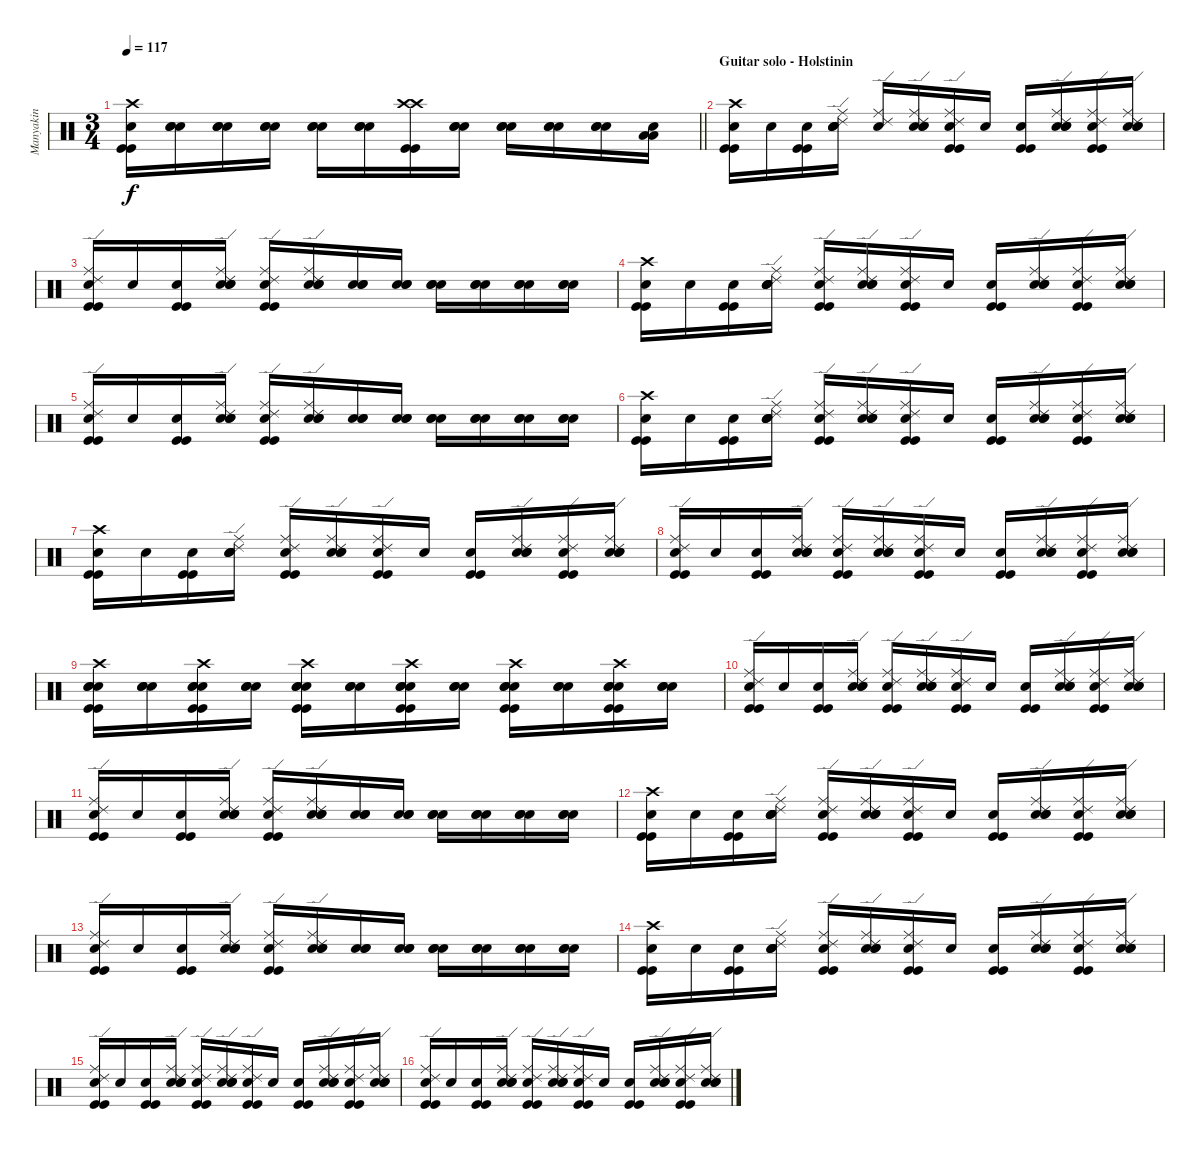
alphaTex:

\track ("Manyakin" "Manyakin") {instrument percussion}
\staff {score}
\articulation defaults
\ts (3 4)
\tempo 117
\clef neutral
\barLineRight lightlight
\ks c
("Crash high (hit)" "Kick (hit)" "Kick (hit)" "Snare (hit)"{x}).16{dy f} ("Electric Snare (hit)" "Electric Snare (hit)" "Snare (hit)"{x}).16 ("Electric Snare (hit)" "Electric Snare (hit)" "Snare (hit)"{x}).16 ("Electric Snare (hit)" "Electric Snare (hit)" "Snare (hit)"{x}).16 ("Electric Snare (hit)" "Electric Snare (hit)" "Snare (hit)"{x}).16 ("Electric Snare (hit)" "Electric Snare (hit)" "Snare (hit)"{x}).16 ("Crash high (hit)" "Kick (hit)" "Kick (hit)" "Crash high (hit)"{x}).16 ("Electric Snare (hit)" "Electric Snare (hit)" "Snare (hit)"{x}).16 ("Electric Snare (hit)" "Electric Snare (hit)" "Snare (hit)"{x}).16 ("Electric Snare (hit)" "Electric Snare (hit)" "Snare (hit)"{x}).16 ("Electric Snare (hit)" "Electric Snare (hit)" "Snare (hit)"{x}).16 ("Low Tom (hit)" "Low Tom (hit)" "Snare (hit)"{x}).16 |
\section ("" "Guitar solo - Holstinin")
("Crash high (hit)" "Kick (hit)" "Kick (hit)" "Snare (hit)"{x}).16 "Snare (hit)"{x}.16 ("Kick (hit)" "Kick (hit)" "Snare (hit)"{x}).16 ("Ride (middle)" "Ride (edge) 2" "Electric Snare (hit)" "Electric Snare (hit)" "Snare (hit)"{x}).16 ("Ride (middle)" "Ride (edge) 2" "Snare (hit)"{x}).16 ("Ride (middle)" "Ride (edge) 2" "Electric Snare (hit)" "Electric Snare (hit)" "Snare (hit)"{x}).16 ("Ride (middle)" "Ride (edge) 2" "Kick (hit)" "Kick (hit)" "Snare (hit)"{x}).16 "Snare (hit)"{x}.16 ("Kick (hit)" "Kick (hit)" "Snare (hit)"{x}).16 ("Ride (middle)" "Ride (edge) 2" "Electric Snare (hit)" "Electric Snare (hit)" "Snare (hit)"{x}).16 ("Ride (middle)" "Ride (edge) 2" "Kick (hit)" "Kick (hit)" "Snare (hit)"{x}).16 ("Ride (middle)" "Ride (edge) 2" "Electric Snare (hit)" "Electric Snare (hit)" "Snare (hit)"{x}).16 |
("Ride (middle)" "Ride (edge) 2" "Kick (hit)" "Kick (hit)" "Snare (hit)"{x}).16 "Snare (hit)"{x}.16 ("Kick (hit)" "Kick (hit)" "Snare (hit)"{x}).16 ("Ride (middle)" "Ride (edge) 2" "Electric Snare (hit)" "Electric Snare (hit)" "Snare (hit)"{x}).16 ("Ride (middle)" "Ride (edge) 2" "Kick (hit)" "Kick (hit)" "Snare (hit)"{x}).16 ("Ride (middle)" "Ride (edge) 2" "Electric Snare (hit)" "Electric Snare (hit)" "Snare (hit)"{x}).16 ("Electric Snare (hit)" "Electric Snare (hit)" "Snare (hit)"{x}).16 ("Electric Snare (hit)" "Electric Snare (hit)" "Snare (hit)"{x}).16 ("Electric Snare (hit)" "Electric Snare (hit)" "Snare (hit)"{x}).16 ("Electric Snare (hit)" "Electric Snare (hit)" "Snare (hit)"{x}).16 ("Electric Snare (hit)" "Electric Snare (hit)" "Snare (hit)"{x}).16 ("Electric Snare (hit)" "Electric Snare (hit)" "Snare (hit)"{x}).16 |
("Crash high (hit)" "Kick (hit)" "Kick (hit)" "Snare (hit)"{x}).16 "Snare (hit)"{x}.16 ("Kick (hit)" "Kick (hit)" "Snare (hit)"{x}).16 ("Ride (middle)" "Ride (edge) 2" "Electric Snare (hit)" "Electric Snare (hit)" "Snare (hit)"{x}).16 ("Ride (middle)" "Ride (edge) 2" "Kick (hit)" "Kick (hit)" "Snare (hit)"{x}).16 ("Ride (middle)" "Ride (edge) 2" "Electric Snare (hit)" "Electric Snare (hit)" "Snare (hit)"{x}).16 ("Ride (middle)" "Ride (edge) 2" "Kick (hit)" "Kick (hit)" "Snare (hit)"{x}).16 "Snare (hit)"{x}.16 ("Kick (hit)" "Kick (hit)" "Snare (hit)"{x}).16 ("Ride (middle)" "Ride (edge) 2" "Electric Snare (hit)" "Electric Snare (hit)" "Snare (hit)"{x}).16 ("Ride (middle)" "Ride (edge) 2" "Kick (hit)" "Kick (hit)" "Snare (hit)"{x}).16 ("Ride (middle)" "Ride (edge) 2" "Electric Snare (hit)" "Electric Snare (hit)" "Snare (hit)"{x}).16 |
("Ride (middle)" "Ride (edge) 2" "Kick (hit)" "Kick (hit)" "Snare (hit)"{x}).16 "Snare (hit)"{x}.16 ("Kick (hit)" "Kick (hit)" "Snare (hit)"{x}).16 ("Ride (middle)" "Ride (edge) 2" "Electric Snare (hit)" "Electric Snare (hit)" "Snare (hit)"{x}).16 ("Ride (middle)" "Ride (edge) 2" "Kick (hit)" "Kick (hit)" "Snare (hit)"{x}).16 ("Ride (middle)" "Ride (edge) 2" "Electric Snare (hit)" "Electric Snare (hit)" "Snare (hit)"{x}).16 ("Electric Snare (hit)" "Electric Snare (hit)" "Snare (hit)"{x}).16 ("Electric Snare (hit)" "Electric Snare (hit)" "Snare (hit)"{x}).16 ("Electric Snare (hit)" "Electric Snare (hit)" "Snare (hit)"{x}).16 ("Electric Snare (hit)" "Electric Snare (hit)" "Snare (hit)"{x}).16 ("Electric Snare (hit)" "Electric Snare (hit)" "Snare (hit)"{x}).16 ("Electric Snare (hit)" "Electric Snare (hit)" "Snare (hit)"{x}).16 |
("Crash high (hit)" "Kick (hit)" "Kick (hit)" "Snare (hit)"{x}).16 "Snare (hit)"{x}.16 ("Kick (hit)" "Kick (hit)" "Snare (hit)"{x}).16 ("Ride (middle)" "Ride (edge) 2" "Electric Snare (hit)" "Electric Snare (hit)" "Snare (hit)"{x}).16 ("Ride (middle)" "Ride (edge) 2" "Kick (hit)" "Kick (hit)" "Snare (hit)"{x}).16 ("Ride (middle)" "Ride (edge) 2" "Electric Snare (hit)" "Electric Snare (hit)" "Snare (hit)"{x}).16 ("Ride (middle)" "Ride (edge) 2" "Kick (hit)" "Kick (hit)" "Snare (hit)"{x}).16 "Snare (hit)"{x}.16 ("Kick (hit)" "Kick (hit)" "Snare (hit)"{x}).16 ("Ride (middle)" "Ride (edge) 2" "Electric Snare (hit)" "Electric Snare (hit)" "Snare (hit)"{x}).16 ("Ride (middle)" "Ride (edge) 2" "Kick (hit)" "Kick (hit)" "Snare (hit)"{x}).16 ("Ride (middle)" "Ride (edge) 2" "Electric Snare (hit)" "Electric Snare (hit)" "Snare (hit)"{x}).16 |
("Crash high (hit)" "Kick (hit)" "Kick (hit)" "Snare (hit)"{x}).16 "Snare (hit)"{x}.16 ("Kick (hit)" "Kick (hit)" "Snare (hit)"{x}).16 ("Ride (middle)" "Ride (edge) 2" "Electric Snare (hit)" "Electric Snare (hit)" "Snare (hit)"{x}).16 ("Ride (middle)" "Ride (edge) 2" "Kick (hit)" "Kick (hit)" "Snare (hit)"{x}).16 ("Ride (middle)" "Ride (edge) 2" "Electric Snare (hit)" "Electric Snare (hit)" "Snare (hit)"{x}).16 ("Ride (middle)" "Ride (edge) 2" "Kick (hit)" "Kick (hit)" "Snare (hit)"{x}).16 "Snare (hit)"{x}.16 ("Kick (hit)" "Kick (hit)" "Snare (hit)"{x}).16 ("Ride (middle)" "Ride (edge) 2" "Electric Snare (hit)" "Electric Snare (hit)" "Snare (hit)"{x}).16 ("Ride (middle)" "Ride (edge) 2" "Kick (hit)" "Kick (hit)" "Snare (hit)"{x}).16 ("Ride (middle)" "Ride (edge) 2" "Electric Snare (hit)" "Electric Snare (hit)" "Snare (hit)"{x}).16 |
("Ride (middle)" "Ride (edge) 2" "Kick (hit)" "Kick (hit)" "Snare (hit)"{x}).16 "Snare (hit)"{x}.16 ("Kick (hit)" "Kick (hit)" "Snare (hit)"{x}).16 ("Ride (middle)" "Ride (edge) 2" "Electric Snare (hit)" "Electric Snare (hit)" "Snare (hit)"{x}).16 ("Ride (middle)" "Ride (edge) 2" "Kick (hit)" "Kick (hit)" "Snare (hit)"{x}).16 ("Ride (middle)" "Ride (edge) 2" "Electric Snare (hit)" "Electric Snare (hit)" "Snare (hit)"{x}).16 ("Ride (middle)" "Ride (edge) 2" "Kick (hit)" "Kick (hit)" "Snare (hit)"{x}).16 "Snare (hit)"{x}.16 ("Kick (hit)" "Kick (hit)" "Snare (hit)"{x}).16 ("Ride (middle)" "Ride (edge) 2" "Electric Snare (hit)" "Electric Snare (hit)" "Snare (hit)"{x}).16 ("Ride (middle)" "Ride (edge) 2" "Kick (hit)" "Kick (hit)" "Snare (hit)"{x}).16 ("Ride (middle)" "Ride (edge) 2" "Electric Snare (hit)" "Electric Snare (hit)" "Snare (hit)"{x}).16 |
("Crash high (hit)" "Kick (hit)" "Kick (hit)" "Electric Snare (hit)" "Electric Snare (hit)" "Snare (hit)"{x}).16 ("Electric Snare (hit)" "Electric Snare (hit)" "Snare (hit)"{x}).16 ("Crash high (hit)" "Kick (hit)" "Kick (hit)" "Electric Snare (hit)" "Electric Snare (hit)" "Snare (hit)"{x}).16 ("Electric Snare (hit)" "Electric Snare (hit)" "Snare (hit)"{x}).16 ("Crash high (hit)" "Kick (hit)" "Kick (hit)" "Electric Snare (hit)" "Electric Snare (hit)" "Snare (hit)"{x}).16 ("Electric Snare (hit)" "Electric Snare (hit)" "Snare (hit)"{x}).16 ("Crash high (hit)" "Kick (hit)" "Kick (hit)" "Electric Snare (hit)" "Electric Snare (hit)" "Snare (hit)"{x}).16 ("Electric Snare (hit)" "Electric Snare (hit)" "Snare (hit)"{x}).16 ("Crash high (hit)" "Kick (hit)" "Kick (hit)" "Electric Snare (hit)" "Electric Snare (hit)" "Snare (hit)"{x}).16 ("Electric Snare (hit)" "Electric Snare (hit)" "Snare (hit)"{x}).16 ("Crash high (hit)" "Kick (hit)" "Kick (hit)" "Electric Snare (hit)" "Electric Snare (hit)" "Snare (hit)"{x}).16 ("Electric Snare (hit)" "Electric Snare (hit)" "Snare (hit)"{x}).16 |
("Ride (middle)" "Ride (edge) 2" "Kick (hit)" "Kick (hit)" "Snare (hit)"{x}).16 "Snare (hit)"{x}.16 ("Kick (hit)" "Kick (hit)" "Snare (hit)"{x}).16 ("Ride (middle)" "Ride (edge) 2" "Electric Snare (hit)" "Electric Snare (hit)" "Snare (hit)"{x}).16 ("Ride (middle)" "Ride (edge) 2" "Kick (hit)" "Kick (hit)" "Snare (hit)"{x}).16 ("Ride (middle)" "Ride (edge) 2" "Electric Snare (hit)" "Electric Snare (hit)" "Snare (hit)"{x}).16 ("Ride (middle)" "Ride (edge) 2" "Kick (hit)" "Kick (hit)" "Snare (hit)"{x}).16 "Snare (hit)"{x}.16 ("Kick (hit)" "Kick (hit)" "Snare (hit)"{x}).16 ("Ride (middle)" "Ride (edge) 2" "Electric Snare (hit)" "Electric Snare (hit)" "Snare (hit)"{x}).16 ("Ride (middle)" "Ride (edge) 2" "Kick (hit)" "Kick (hit)" "Snare (hit)"{x}).16 ("Ride (middle)" "Ride (edge) 2" "Electric Snare (hit)" "Electric Snare (hit)" "Snare (hit)"{x}).16 |
("Ride (middle)" "Ride (edge) 2" "Kick (hit)" "Kick (hit)" "Snare (hit)"{x}).16 "Snare (hit)"{x}.16 ("Kick (hit)" "Kick (hit)" "Snare (hit)"{x}).16 ("Ride (middle)" "Ride (edge) 2" "Electric Snare (hit)" "Electric Snare (hit)" "Snare (hit)"{x}).16 ("Ride (middle)" "Ride (edge) 2" "Kick (hit)" "Kick (hit)" "Snare (hit)"{x}).16 ("Ride (middle)" "Ride (edge) 2" "Electric Snare (hit)" "Electric Snare (hit)" "Snare (hit)"{x}).16 ("Electric Snare (hit)" "Electric Snare (hit)" "Snare (hit)"{x}).16 ("Electric Snare (hit)" "Electric Snare (hit)" "Snare (hit)"{x}).16 ("Electric Snare (hit)" "Electric Snare (hit)" "Snare (hit)"{x}).16 ("Electric Snare (hit)" "Electric Snare (hit)" "Snare (hit)"{x}).16 ("Electric Snare (hit)" "Electric Snare (hit)" "Snare (hit)"{x}).16 ("Electric Snare (hit)" "Electric Snare (hit)" "Snare (hit)"{x}).16 |
("Crash high (hit)" "Kick (hit)" "Kick (hit)" "Snare (hit)"{x}).16 "Snare (hit)"{x}.16 ("Kick (hit)" "Kick (hit)" "Snare (hit)"{x}).16 ("Ride (middle)" "Ride (edge) 2" "Electric Snare (hit)" "Electric Snare (hit)" "Snare (hit)"{x}).16 ("Ride (middle)" "Ride (edge) 2" "Kick (hit)" "Kick (hit)" "Snare (hit)"{x}).16 ("Ride (middle)" "Ride (edge) 2" "Electric Snare (hit)" "Electric Snare (hit)" "Snare (hit)"{x}).16 ("Ride (middle)" "Ride (edge) 2" "Kick (hit)" "Kick (hit)" "Snare (hit)"{x}).16 "Snare (hit)"{x}.16 ("Kick (hit)" "Kick (hit)" "Snare (hit)"{x}).16 ("Ride (middle)" "Ride (edge) 2" "Electric Snare (hit)" "Electric Snare (hit)" "Snare (hit)"{x}).16 ("Ride (middle)" "Ride (edge) 2" "Kick (hit)" "Kick (hit)" "Snare (hit)"{x}).16 ("Ride (middle)" "Ride (edge) 2" "Electric Snare (hit)" "Electric Snare (hit)" "Snare (hit)"{x}).16 |
("Ride (middle)" "Ride (edge) 2" "Kick (hit)" "Kick (hit)" "Snare (hit)"{x}).16 "Snare (hit)"{x}.16 ("Kick (hit)" "Kick (hit)" "Snare (hit)"{x}).16 ("Ride (middle)" "Ride (edge) 2" "Electric Snare (hit)" "Electric Snare (hit)" "Snare (hit)"{x}).16 ("Ride (middle)" "Ride (edge) 2" "Kick (hit)" "Kick (hit)" "Snare (hit)"{x}).16 ("Ride (middle)" "Ride (edge) 2" "Electric Snare (hit)" "Electric Snare (hit)" "Snare (hit)"{x}).16 ("Electric Snare (hit)" "Electric Snare (hit)" "Snare (hit)"{x}).16 ("Electric Snare (hit)" "Electric Snare (hit)" "Snare (hit)"{x}).16 ("Electric Snare (hit)" "Electric Snare (hit)" "Snare (hit)"{x}).16 ("Electric Snare (hit)" "Electric Snare (hit)" "Snare (hit)"{x}).16 ("Electric Snare (hit)" "Electric Snare (hit)" "Snare (hit)"{x}).16 ("Electric Snare (hit)" "Electric Snare (hit)" "Snare (hit)"{x}).16 |
("Crash high (hit)" "Kick (hit)" "Kick (hit)" "Snare (hit)"{x}).16 "Snare (hit)"{x}.16 ("Kick (hit)" "Kick (hit)" "Snare (hit)"{x}).16 ("Ride (middle)" "Ride (edge) 2" "Electric Snare (hit)" "Electric Snare (hit)" "Snare (hit)"{x}).16 ("Ride (middle)" "Ride (edge) 2" "Kick (hit)" "Kick (hit)" "Snare (hit)"{x}).16 ("Ride (middle)" "Ride (edge) 2" "Electric Snare (hit)" "Electric Snare (hit)" "Snare (hit)"{x}).16 ("Ride (middle)" "Ride (edge) 2" "Kick (hit)" "Kick (hit)" "Snare (hit)"{x}).16 "Snare (hit)"{x}.16 ("Kick (hit)" "Kick (hit)" "Snare (hit)"{x}).16 ("Ride (middle)" "Ride (edge) 2" "Electric Snare (hit)" "Electric Snare (hit)" "Snare (hit)"{x}).16 ("Ride (middle)" "Ride (edge) 2" "Kick (hit)" "Kick (hit)" "Snare (hit)"{x}).16 ("Ride (middle)" "Ride (edge) 2" "Electric Snare (hit)" "Electric Snare (hit)" "Snare (hit)"{x}).16 |
("Ride (middle)" "Ride (edge) 2" "Kick (hit)" "Kick (hit)" "Snare (hit)"{x}).16 "Snare (hit)"{x}.16 ("Kick (hit)" "Kick (hit)" "Snare (hit)"{x}).16 ("Ride (middle)" "Ride (edge) 2" "Electric Snare (hit)" "Electric Snare (hit)" "Snare (hit)"{x}).16 ("Ride (middle)" "Ride (edge) 2" "Kick (hit)" "Kick (hit)" "Snare (hit)"{x}).16 ("Ride (middle)" "Ride (edge) 2" "Electric Snare (hit)" "Electric Snare (hit)" "Snare (hit)"{x}).16 ("Ride (middle)" "Ride (edge) 2" "Kick (hit)" "Kick (hit)" "Snare (hit)"{x}).16 "Snare (hit)"{x}.16 ("Kick (hit)" "Kick (hit)" "Snare (hit)"{x}).16 ("Ride (middle)" "Ride (edge) 2" "Electric Snare (hit)" "Electric Snare (hit)" "Snare (hit)"{x}).16 ("Ride (middle)" "Ride (edge) 2" "Kick (hit)" "Kick (hit)" "Snare (hit)"{x}).16 ("Ride (middle)" "Ride (edge) 2" "Electric Snare (hit)" "Electric Snare (hit)" "Snare (hit)"{x}).16 |
("Ride (middle)" "Ride (edge) 2" "Kick (hit)" "Kick (hit)" "Snare (hit)"{x}).16 "Snare (hit)"{x}.16 ("Kick (hit)" "Kick (hit)" "Snare (hit)"{x}).16 ("Ride (middle)" "Ride (edge) 2" "Electric Snare (hit)" "Electric Snare (hit)" "Snare (hit)"{x}).16 ("Ride (middle)" "Ride (edge) 2" "Kick (hit)" "Kick (hit)" "Snare (hit)"{x}).16 ("Ride (middle)" "Ride (edge) 2" "Electric Snare (hit)" "Electric Snare (hit)" "Snare (hit)"{x}).16 ("Ride (middle)" "Ride (edge) 2" "Kick (hit)" "Kick (hit)" "Snare (hit)"{x}).16 "Snare (hit)"{x}.16 ("Kick (hit)" "Kick (hit)" "Snare (hit)"{x}).16 ("Ride (middle)" "Ride (edge) 2" "Electric Snare (hit)" "Electric Snare (hit)" "Snare (hit)"{x}).16 ("Ride (middle)" "Ride (edge) 2" "Kick (hit)" "Kick (hit)" "Snare (hit)"{x}).16 ("Ride (middle)" "Ride (edge) 2" "Electric Snare (hit)" "Electric Snare (hit)" "Snare (hit)"{x}).16
